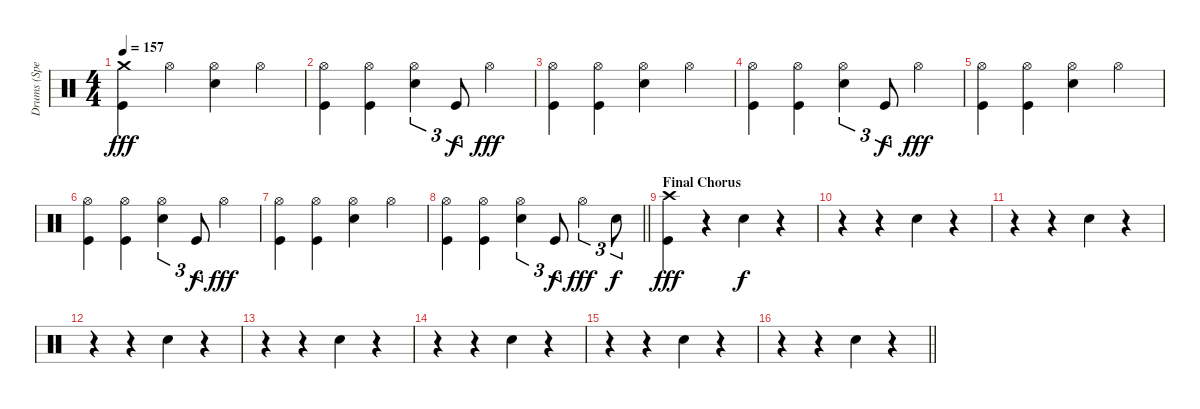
\track ("Drums (Spencer Smith)" "Drums (Spe") {instrument percussion}
\staff {score}
\articulation defaults
\ts (4 4)
\tempo 157
\clef neutral
\ks c
("Crash medium (hit)" "Kick (hit)").4{dy fff} "Hi-Hat (open)".4 ("Hi-Hat (open)" "Electric Snare (hit)").4 "Hi-Hat (open)".4 |
("Hi-Hat (open)" "Kick (hit)").4 ("Hi-Hat (open)" "Kick (hit)").4 ("Hi-Hat (open)" "Electric Snare (hit)").4{tu (3 2)} "Kick (hit)".8{tu (3 2) dy f} "Hi-Hat (open)".4{dy fff} |
("Hi-Hat (open)" "Kick (hit)").4 ("Hi-Hat (open)" "Kick (hit)").4 ("Hi-Hat (open)" "Electric Snare (hit)").4 "Hi-Hat (open)".4 |
("Hi-Hat (open)" "Kick (hit)").4 ("Hi-Hat (open)" "Kick (hit)").4 ("Hi-Hat (open)" "Electric Snare (hit)").4{tu (3 2)} "Kick (hit)".8{tu (3 2) dy f} "Hi-Hat (open)".4{dy fff} |
("Hi-Hat (open)" "Kick (hit)").4 ("Hi-Hat (open)" "Kick (hit)").4 ("Hi-Hat (open)" "Electric Snare (hit)").4 "Hi-Hat (open)".4 |
("Hi-Hat (open)" "Kick (hit)").4 ("Hi-Hat (open)" "Kick (hit)").4 ("Hi-Hat (open)" "Electric Snare (hit)").4{tu (3 2)} "Kick (hit)".8{tu (3 2) dy f} "Hi-Hat (open)".4{dy fff} |
("Hi-Hat (open)" "Kick (hit)").4 ("Hi-Hat (open)" "Kick (hit)").4 ("Hi-Hat (open)" "Electric Snare (hit)").4 "Hi-Hat (open)".4 |
\barLineRight lightlight
("Hi-Hat (open)" "Kick (hit)").4 ("Hi-Hat (open)" "Kick (hit)").4 ("Hi-Hat (open)" "Electric Snare (hit)").4{tu (3 2)} "Kick (hit)".8{tu (3 2) dy f} "Hi-Hat (open)".4{tu (3 2) dy fff} "Electric Snare (hit)".8{tu (3 2) dy f} |
\section ("" "Final Chorus")
("Crash high (hit)" "Kick (hit)").4{dy fff} r.4 "Hand Clap (hit)".4{dy f} r.4 |
r.4 r.4 "Hand Clap (hit)".4 r.4 |
r.4 r.4 "Hand Clap (hit)".4 r.4 |
r.4 r.4 "Hand Clap (hit)".4 r.4 |
r.4 r.4 "Hand Clap (hit)".4 r.4 |
r.4 r.4 "Hand Clap (hit)".4 r.4 |
r.4 r.4 "Hand Clap (hit)".4 r.4 |
\barLineRight lightlight
r.4 r.4 "Hand Clap (hit)".4 r.4
